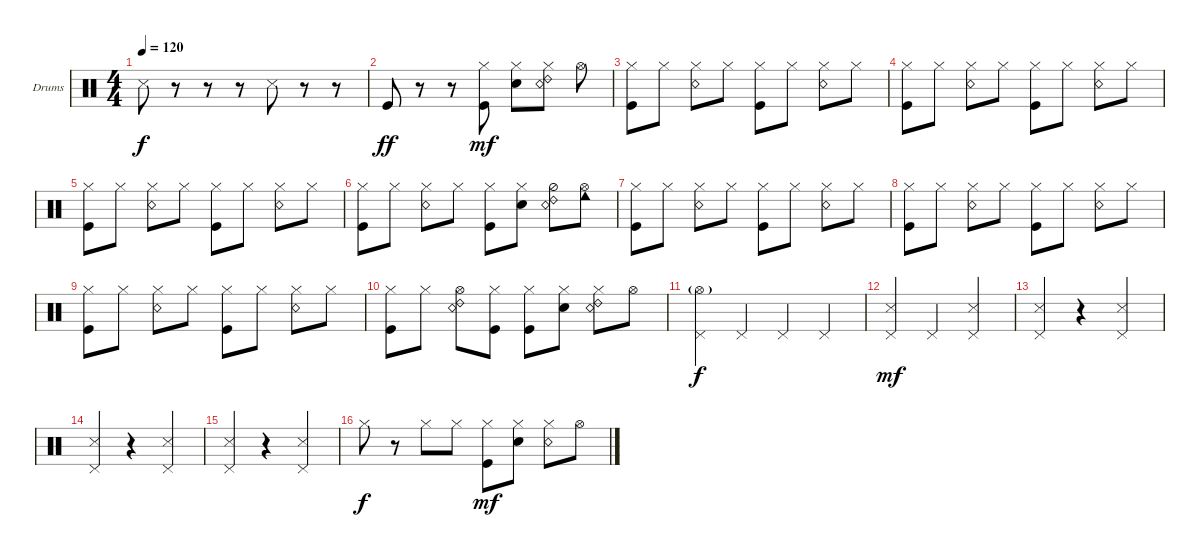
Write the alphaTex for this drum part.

\defaultSystemsLayout 4
\bracketExtendMode groupsimilarinstruments
\firstSystemTrackNameOrientation horizontal
\otherSystemsTrackNameOrientation horizontal
\track ("Drumkit" "Drums") {instrument percussion}
\staff {score}
\articulation defaults
\ts (4 4)
\tempo 120
\clef neutral
\ks c "Snare (side stick) 3".8{dy f}
r.8 r.8 r.8 "Snare (side stick) 3".8 r.8 r.8 |
"Kick (hit)".8{dy ff} r.8 r.8 ("Hi-Hat (closed)" "Kick (hit)").8{dy mf} ("Hi-Hat (closed)" "Snare (hit) 2").8 ("Hi-Hat (closed)" "Snare (rim shot)" "Ride (bell) 2").8 "Hi-Hat (open)".8 |
("Hi-Hat (closed)" "Kick (hit)").8 "Hi-Hat (closed)".8 ("Hi-Hat (closed)" "Snare (rim shot)").8 "Hi-Hat (closed)".8 ("Hi-Hat (closed)" "Kick (hit)").8 "Hi-Hat (closed)".8 ("Hi-Hat (closed)" "Snare (rim shot)").8 "Hi-Hat (closed)".8 |
("Hi-Hat (closed)" "Kick (hit)").8 "Hi-Hat (closed)".8 ("Hi-Hat (closed)" "Snare (rim shot)").8 "Hi-Hat (closed)".8 ("Hi-Hat (closed)" "Kick (hit)").8 "Hi-Hat (closed)".8 ("Hi-Hat (closed)" "Snare (rim shot)").8 "Hi-Hat (closed)".8 |
("Hi-Hat (closed)" "Kick (hit)").8 "Hi-Hat (closed)".8 ("Hi-Hat (closed)" "Snare (rim shot)").8 "Hi-Hat (closed)".8 ("Hi-Hat (closed)" "Kick (hit)").8 "Hi-Hat (closed)".8 ("Hi-Hat (closed)" "Snare (rim shot)").8 "Hi-Hat (closed)".8 |
("Hi-Hat (closed)" "Kick (hit)").8 "Hi-Hat (closed)".8 ("Hi-Hat (closed)" "Snare (rim shot)").8 "Hi-Hat (closed)".8 ("Hi-Hat (closed)" "Kick (hit)").8 ("Hi-Hat (closed)" "Snare (hit) 2").8 ("Hi-Hat (half)" "Snare (rim shot)" "Ride (bell) 2").8 ("Hi-Hat (open)" "Cowbell low (hit)").8 |
("Hi-Hat (closed)" "Kick (hit)").8 "Hi-Hat (closed)".8 ("Hi-Hat (closed)" "Snare (rim shot)").8 "Hi-Hat (closed)".8 ("Hi-Hat (closed)" "Kick (hit)").8 "Hi-Hat (closed)".8 ("Hi-Hat (closed)" "Snare (rim shot)").8 "Hi-Hat (closed)".8 |
("Hi-Hat (closed)" "Kick (hit)").8 "Hi-Hat (closed)".8 ("Hi-Hat (closed)" "Snare (rim shot)").8 "Hi-Hat (closed)".8 ("Hi-Hat (closed)" "Kick (hit)").8 "Hi-Hat (closed)".8 ("Hi-Hat (closed)" "Snare (rim shot)").8 "Hi-Hat (closed)".8 |
("Hi-Hat (closed)" "Kick (hit)").8 "Hi-Hat (closed)".8 ("Hi-Hat (closed)" "Snare (rim shot)").8 "Hi-Hat (closed)".8 ("Hi-Hat (closed)" "Kick (hit)").8 "Hi-Hat (closed)".8 ("Hi-Hat (closed)" "Snare (rim shot)").8 "Hi-Hat (closed)".8 |
("Hi-Hat (closed)" "Kick (hit)").8 "Hi-Hat (closed)".8 ("Hi-Hat (open)" "Snare (rim shot)" "Ride (bell) 2").8 ("Hi-Hat (closed)" "Kick (hit)").8 ("Hi-Hat (closed)" "Kick (hit)").8 ("Hi-Hat (closed)" "Snare (hit) 2").8 ("Hi-Hat (closed)" "Snare (rim shot)" "Ride (bell) 2").8 "Hi-Hat (open)".8 |
("Pedal Hi-Hat (hit)" "Hi-Hat (open)"{g}).4{dy f} "Pedal Hi-Hat (hit)".4 "Pedal Hi-Hat (hit)".4 "Pedal Hi-Hat (hit)".4 |
("Pedal Hi-Hat (hit)" "Snare (side stick) 3").4{dy mf} "Pedal Hi-Hat (hit)".4 ("Snare (side stick) 3" "Pedal Hi-Hat (hit)").4 |
("Pedal Hi-Hat (hit)" "Snare (side stick) 3").4 r.4 ("Snare (side stick) 3" "Pedal Hi-Hat (hit)").4 |
("Pedal Hi-Hat (hit)" "Snare (side stick) 3").4 r.4 ("Snare (side stick) 3" "Pedal Hi-Hat (hit)").4 |
("Pedal Hi-Hat (hit)" "Snare (side stick) 3").4 r.4 ("Snare (side stick) 3" "Pedal Hi-Hat (hit)").4 |
"Hi-Hat (closed)".8{dy f} r.8 "Hi-Hat (closed)".8 "Hi-Hat (closed)".8 ("Hi-Hat (closed)" "Kick (hit)").8{dy mf} ("Hi-Hat (closed)" "Snare (hit) 2").8 ("Hi-Hat (closed)" "Snare (rim shot)").8 "Hi-Hat (open)".8
